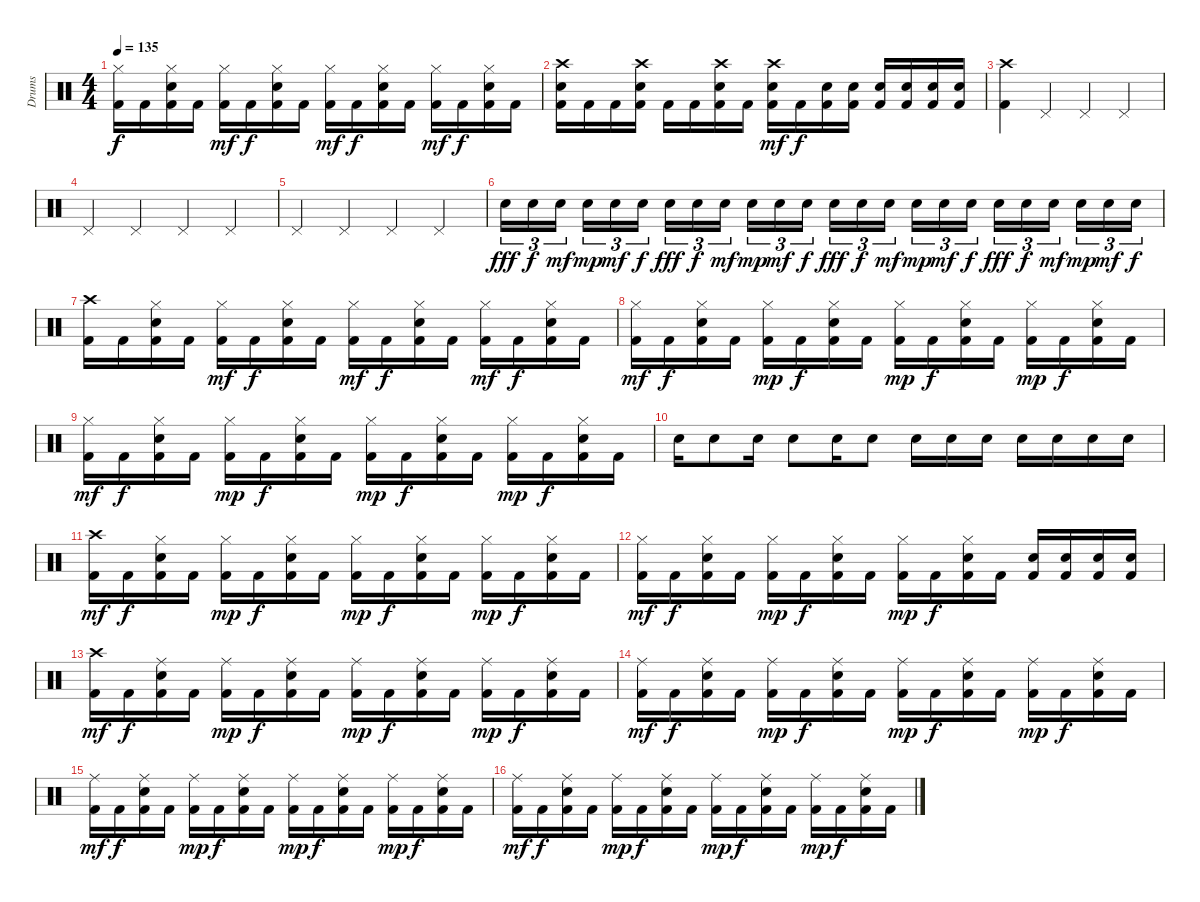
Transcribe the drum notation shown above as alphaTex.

\track ("Drums" "Drums") {instrument percussion}
\staff {score}
\articulation defaults
\ts (4 4)
\tempo 135
\clef neutral
\ks c
("Hi-Hat (closed)" "Kick (hit) 2").16{dy f} "Kick (hit) 2".16 ("Hi-Hat (closed)" "Snare (hit) 2" "Kick (hit) 2").16 "Kick (hit) 2".16 ("Hi-Hat (closed)" "Kick (hit) 2").16{dy mf} "Kick (hit) 2".16{dy f} ("Hi-Hat (closed)" "Snare (hit) 2" "Kick (hit) 2").16 "Kick (hit) 2".16 ("Hi-Hat (closed)" "Kick (hit) 2").16{dy mf} "Kick (hit) 2".16{dy f} ("Hi-Hat (closed)" "Snare (hit) 2" "Kick (hit) 2").16 "Kick (hit) 2".16 ("Hi-Hat (closed)" "Kick (hit) 2").16{dy mf} "Kick (hit) 2".16{dy f} ("Hi-Hat (closed)" "Snare (hit) 2" "Kick (hit) 2").16 "Kick (hit) 2".16 |
("Crash high (hit)" "Snare (hit) 2" "Kick (hit) 2").16 "Kick (hit) 2".16 "Kick (hit) 2".16 ("Crash high (hit)" "Snare (hit) 2" "Kick (hit) 2").16 "Kick (hit) 2".16 "Kick (hit) 2".16 ("Crash high (hit)" "Snare (hit) 2" "Kick (hit) 2").16 "Kick (hit) 2".16 ("Crash high (hit)" "Snare (hit) 2" "Kick (hit) 2").16{dy mf} "Kick (hit) 2".16{dy f} ("Snare (hit) 2" "Kick (hit) 2").16 ("Snare (hit) 2" "Kick (hit) 2").16 ("Snare (hit) 2" "Kick (hit) 2").16 ("Snare (hit) 2" "Kick (hit) 2").16 ("Snare (hit) 2" "Kick (hit) 2").16 ("Snare (hit) 2" "Kick (hit) 2").16 |
("Crash high (hit)" "Kick (hit) 2").4 "Pedal Hi-Hat (hit)".4 "Pedal Hi-Hat (hit)".4 "Pedal Hi-Hat (hit)".4 |
"Pedal Hi-Hat (hit)".4 "Pedal Hi-Hat (hit)".4 "Pedal Hi-Hat (hit)".4 "Pedal Hi-Hat (hit)".4 |
"Pedal Hi-Hat (hit)".4 "Pedal Hi-Hat (hit)".4 "Pedal Hi-Hat (hit)".4 "Pedal Hi-Hat (hit)".4 |
"Snare (hit) 2".16{tu (3 2) dy fff} "Snare (hit) 2".16{tu (3 2) dy f} "Snare (hit) 2".16{tu (3 2) dy mf} "Snare (hit) 2".16{tu (3 2) dy mp} "Snare (hit) 2".16{tu (3 2) dy mf} "Snare (hit) 2".16{tu (3 2) dy f} "Snare (hit) 2".16{tu (3 2) dy fff} "Snare (hit) 2".16{tu (3 2) dy f} "Snare (hit) 2".16{tu (3 2) dy mf} "Snare (hit) 2".16{tu (3 2) dy mp} "Snare (hit) 2".16{tu (3 2) dy mf} "Snare (hit) 2".16{tu (3 2) dy f} "Snare (hit) 2".16{tu (3 2) dy fff} "Snare (hit) 2".16{tu (3 2) dy f} "Snare (hit) 2".16{tu (3 2) dy mf} "Snare (hit) 2".16{tu (3 2) dy mp} "Snare (hit) 2".16{tu (3 2) dy mf} "Snare (hit) 2".16{tu (3 2) dy f} "Snare (hit) 2".16{tu (3 2) dy fff} "Snare (hit) 2".16{tu (3 2) dy f} "Snare (hit) 2".16{tu (3 2) dy mf} "Snare (hit) 2".16{tu (3 2) dy mp} "Snare (hit) 2".16{tu (3 2) dy mf} "Snare (hit) 2".16{tu (3 2) dy f} |
("Crash high (hit)" "Kick (hit) 2").16 "Kick (hit) 2".16 ("Hi-Hat (closed)" "Snare (hit) 2" "Kick (hit) 2").16 "Kick (hit) 2".16 ("Hi-Hat (closed)" "Kick (hit) 2").16{dy mf} "Kick (hit) 2".16{dy f} ("Hi-Hat (closed)" "Snare (hit) 2" "Kick (hit) 2").16 "Kick (hit) 2".16 ("Hi-Hat (closed)" "Kick (hit) 2").16{dy mf} "Kick (hit) 2".16{dy f} ("Hi-Hat (closed)" "Snare (hit) 2" "Kick (hit) 2").16 "Kick (hit) 2".16 ("Hi-Hat (closed)" "Kick (hit) 2").16{dy mf} "Kick (hit) 2".16{dy f} ("Hi-Hat (closed)" "Snare (hit) 2" "Kick (hit) 2").16 "Kick (hit) 2".16 |
("Hi-Hat (closed)" "Kick (hit) 2").16{dy mf} "Kick (hit) 2".16{dy f} ("Hi-Hat (closed)" "Snare (hit) 2" "Kick (hit) 2").16 "Kick (hit) 2".16 ("Hi-Hat (closed)" "Kick (hit) 2").16{dy mp} "Kick (hit) 2".16{dy f} ("Hi-Hat (closed)" "Snare (hit) 2" "Kick (hit) 2").16 "Kick (hit) 2".16 ("Hi-Hat (closed)" "Kick (hit) 2").16{dy mp} "Kick (hit) 2".16{dy f} ("Hi-Hat (closed)" "Snare (hit) 2" "Kick (hit) 2").16 "Kick (hit) 2".16 ("Hi-Hat (closed)" "Kick (hit) 2").16{dy mp} "Kick (hit) 2".16{dy f} ("Hi-Hat (closed)" "Snare (hit) 2" "Kick (hit) 2").16 "Kick (hit) 2".16 |
("Hi-Hat (closed)" "Kick (hit) 2").16{dy mf} "Kick (hit) 2".16{dy f} ("Hi-Hat (closed)" "Snare (hit) 2" "Kick (hit) 2").16 "Kick (hit) 2".16 ("Hi-Hat (closed)" "Kick (hit) 2").16{dy mp} "Kick (hit) 2".16{dy f} ("Hi-Hat (closed)" "Snare (hit) 2" "Kick (hit) 2").16 "Kick (hit) 2".16 ("Hi-Hat (closed)" "Kick (hit) 2").16{dy mp} "Kick (hit) 2".16{dy f} ("Hi-Hat (closed)" "Snare (hit) 2" "Kick (hit) 2").16 "Kick (hit) 2".16 ("Hi-Hat (closed)" "Kick (hit) 2").16{dy mp} "Kick (hit) 2".16{dy f} ("Hi-Hat (closed)" "Snare (hit) 2" "Kick (hit) 2").16 "Kick (hit) 2".16 |
"Snare (hit) 2".16 "Snare (hit) 2".8 "Snare (hit) 2".16 "Snare (hit) 2".8 "Snare (hit) 2".16 "Snare (hit) 2".8 "Snare (hit) 2".16 "Snare (hit) 2".16 "Snare (hit) 2".16 "Snare (hit) 2".16 "Snare (hit) 2".16 "Snare (hit) 2".16 "Snare (hit) 2".16 |
("Crash high (hit)" "Kick (hit) 2").16{dy mf} "Kick (hit) 2".16{dy f} ("Hi-Hat (closed)" "Snare (hit) 2" "Kick (hit) 2").16 "Kick (hit) 2".16 ("Hi-Hat (closed)" "Kick (hit) 2").16{dy mp} "Kick (hit) 2".16{dy f} ("Hi-Hat (closed)" "Snare (hit) 2" "Kick (hit) 2").16 "Kick (hit) 2".16 ("Hi-Hat (closed)" "Kick (hit) 2").16{dy mp} "Kick (hit) 2".16{dy f} ("Hi-Hat (closed)" "Snare (hit) 2" "Kick (hit) 2").16 "Kick (hit) 2".16 ("Hi-Hat (closed)" "Kick (hit) 2").16{dy mp} "Kick (hit) 2".16{dy f} ("Hi-Hat (closed)" "Snare (hit) 2" "Kick (hit) 2").16 "Kick (hit) 2".16 |
("Hi-Hat (closed)" "Kick (hit) 2").16{dy mf} "Kick (hit) 2".16{dy f} ("Hi-Hat (closed)" "Snare (hit) 2" "Kick (hit) 2").16 "Kick (hit) 2".16 ("Hi-Hat (closed)" "Kick (hit) 2").16{dy mp} "Kick (hit) 2".16{dy f} ("Hi-Hat (closed)" "Snare (hit) 2" "Kick (hit) 2").16 "Kick (hit) 2".16 ("Hi-Hat (closed)" "Kick (hit) 2").16{dy mp} "Kick (hit) 2".16{dy f} ("Hi-Hat (closed)" "Snare (hit) 2" "Kick (hit) 2").16 "Kick (hit) 2".16 ("Snare (hit) 2" "Kick (hit) 2").16 ("Snare (hit) 2" "Kick (hit) 2").16 ("Snare (hit) 2" "Kick (hit) 2").16 ("Snare (hit) 2" "Kick (hit) 2").16 |
("Crash high (hit)" "Kick (hit) 2").16{dy mf} "Kick (hit) 2".16{dy f} ("Ride (middle)" "Snare (hit) 2" "Kick (hit) 2").16 "Kick (hit) 2".16 ("Ride (middle)" "Kick (hit) 2").16{dy mp} "Kick (hit) 2".16{dy f} ("Ride (middle)" "Snare (hit) 2" "Kick (hit) 2").16 "Kick (hit) 2".16 ("Ride (middle)" "Kick (hit) 2").16{dy mp} "Kick (hit) 2".16{dy f} ("Ride (middle)" "Snare (hit) 2" "Kick (hit) 2").16 "Kick (hit) 2".16 ("Ride (middle)" "Kick (hit) 2").16{dy mp} "Kick (hit) 2".16{dy f} ("Ride (middle)" "Snare (hit) 2" "Kick (hit) 2").16 "Kick (hit) 2".16 |
("Ride (middle)" "Kick (hit) 2").16{dy mf} "Kick (hit) 2".16{dy f} ("Ride (middle)" "Snare (hit) 2" "Kick (hit) 2").16 "Kick (hit) 2".16 ("Ride (middle)" "Kick (hit) 2").16{dy mp} "Kick (hit) 2".16{dy f} ("Ride (middle)" "Snare (hit) 2" "Kick (hit) 2").16 "Kick (hit) 2".16 ("Ride (middle)" "Kick (hit) 2").16{dy mp} "Kick (hit) 2".16{dy f} ("Ride (middle)" "Snare (hit) 2" "Kick (hit) 2").16 "Kick (hit) 2".16 ("Ride (middle)" "Kick (hit) 2").16{dy mp} "Kick (hit) 2".16{dy f} ("Ride (middle)" "Snare (hit) 2" "Kick (hit) 2").16 "Kick (hit) 2".16 |
("Ride (middle)" "Kick (hit) 2").16{dy mf} "Kick (hit) 2".16{dy f} ("Ride (middle)" "Snare (hit) 2" "Kick (hit) 2").16 "Kick (hit) 2".16 ("Ride (middle)" "Kick (hit) 2").16{dy mp} "Kick (hit) 2".16{dy f} ("Ride (middle)" "Snare (hit) 2" "Kick (hit) 2").16 "Kick (hit) 2".16 ("Ride (middle)" "Kick (hit) 2").16{dy mp} "Kick (hit) 2".16{dy f} ("Ride (middle)" "Snare (hit) 2" "Kick (hit) 2").16 "Kick (hit) 2".16 ("Ride (middle)" "Kick (hit) 2").16{dy mp} "Kick (hit) 2".16{dy f} ("Ride (middle)" "Snare (hit) 2" "Kick (hit) 2").16 "Kick (hit) 2".16 |
("Ride (middle)" "Kick (hit) 2").16{dy mf} "Kick (hit) 2".16{dy f} ("Ride (middle)" "Snare (hit) 2" "Kick (hit) 2").16 "Kick (hit) 2".16 ("Ride (middle)" "Kick (hit) 2").16{dy mp} "Kick (hit) 2".16{dy f} ("Ride (middle)" "Snare (hit) 2" "Kick (hit) 2").16 "Kick (hit) 2".16 ("Ride (middle)" "Kick (hit) 2").16{dy mp} "Kick (hit) 2".16{dy f} ("Ride (middle)" "Snare (hit) 2" "Kick (hit) 2").16 "Kick (hit) 2".16 ("Ride (middle)" "Kick (hit) 2").16{dy mp} "Kick (hit) 2".16{dy f} ("Ride (middle)" "Snare (hit) 2" "Kick (hit) 2").16 "Kick (hit) 2".16
